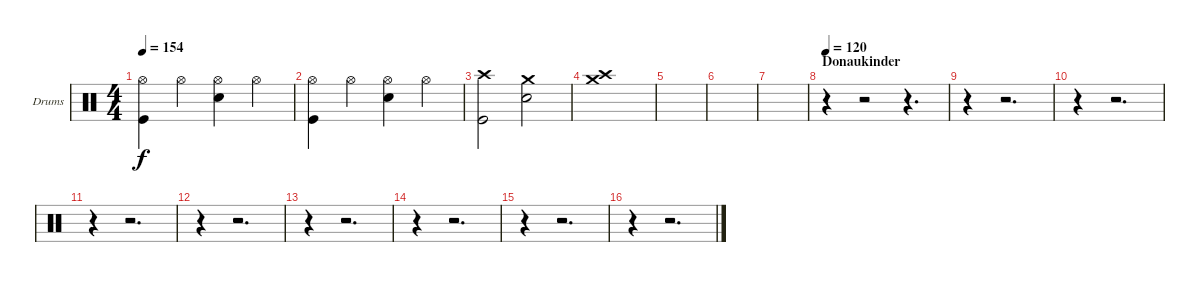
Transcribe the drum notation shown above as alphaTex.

\bracketExtendMode groupsimilarinstruments
\firstSystemTrackNameOrientation horizontal
\otherSystemsTrackNameOrientation horizontal
\track ("Drumkit (Christoph)" "Drums") {instrument percussion}
\staff {score}
\articulation defaults
\ts (4 4)
\tempo 154
\clef neutral
\ks c
("Hi-Hat (open)" "Kick (hit)").4{dy f} "Hi-Hat (open)".4 ("Hi-Hat (open)" "Snare (hit) 2").4 "Hi-Hat (open)".4 |
("Hi-Hat (open)" "Kick (hit)").4 "Hi-Hat (open)".4 ("Hi-Hat (open)" "Snare (hit) 2").4 "Hi-Hat (open)".4 |
("Crash high (hit)" "Kick (hit)").2 ("Crash medium (hit)" "Snare (hit) 2").2 |
("Crash high (hit)" "Crash medium (hit)").1 |
|
|
|
\section ("" "Donaukinder")
\tempo 120
r.4 r.2 r.4{d} |
r.4 r.2{d} |
r.4 r.2{d} |
r.4 r.2{d} |
r.4 r.2{d} |
r.4 r.2{d} |
r.4 r.2{d} |
r.4 r.2{d} |
r.4 r.2{d}
